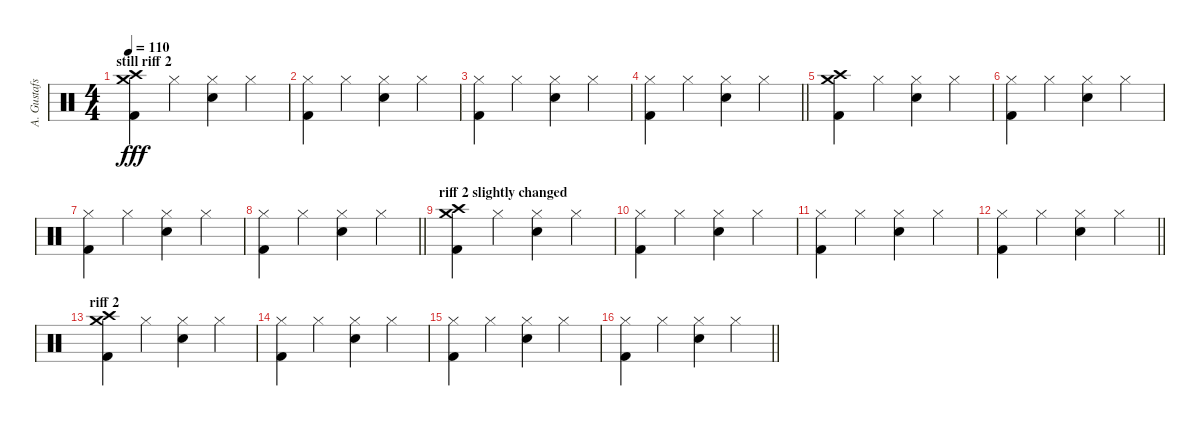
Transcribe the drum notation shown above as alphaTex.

\track ("A. Gustafsson" "A. Gustafs") {instrument percussion}
\staff {score}
\articulation defaults
\ts (4 4)
\section ("" "still riff 2")
\tempo 110
\clef neutral
\ks c
("Crash high (hit)" "Crash medium (hit)" "Kick (hit) 2").4{dy fff} "Hi-Hat (closed)".4 ("Hi-Hat (closed)" "Snare (hit) 2").4 "Hi-Hat (closed)".4 |
("Hi-Hat (closed)" "Kick (hit) 2").4 "Hi-Hat (closed)".4 ("Hi-Hat (closed)" "Snare (hit) 2").4 "Hi-Hat (closed)".4 |
("Hi-Hat (closed)" "Kick (hit) 2").4 "Hi-Hat (closed)".4 ("Hi-Hat (closed)" "Snare (hit) 2").4 "Hi-Hat (closed)".4 |
\barLineRight lightlight
("Hi-Hat (closed)" "Kick (hit) 2").4 "Hi-Hat (closed)".4 ("Hi-Hat (closed)" "Snare (hit) 2").4 "Hi-Hat (closed)".4 |
("Crash high (hit)" "Crash medium (hit)" "Kick (hit) 2").4 "Hi-Hat (closed)".4 ("Hi-Hat (closed)" "Snare (hit) 2").4 "Hi-Hat (closed)".4 |
("Hi-Hat (closed)" "Kick (hit) 2").4 "Hi-Hat (closed)".4 ("Hi-Hat (closed)" "Snare (hit) 2").4 "Hi-Hat (closed)".4 |
("Hi-Hat (closed)" "Kick (hit) 2").4 "Hi-Hat (closed)".4 ("Hi-Hat (closed)" "Snare (hit) 2").4 "Hi-Hat (closed)".4 |
\barLineRight lightlight
("Hi-Hat (closed)" "Kick (hit) 2").4 "Hi-Hat (closed)".4 ("Hi-Hat (closed)" "Snare (hit) 2").4 "Hi-Hat (closed)".4 |
\section ("" "riff 2 slightly changed")
("Crash high (hit)" "Crash medium (hit)" "Kick (hit) 2").4 "Hi-Hat (closed)".4 ("Hi-Hat (closed)" "Snare (hit) 2").4 "Hi-Hat (closed)".4 |
("Hi-Hat (closed)" "Kick (hit) 2").4 "Hi-Hat (closed)".4 ("Hi-Hat (closed)" "Snare (hit) 2").4 "Hi-Hat (closed)".4 |
("Hi-Hat (closed)" "Kick (hit) 2").4 "Hi-Hat (closed)".4 ("Hi-Hat (closed)" "Snare (hit) 2").4 "Hi-Hat (closed)".4 |
\barLineRight lightlight
("Hi-Hat (closed)" "Kick (hit) 2").4 "Hi-Hat (closed)".4 ("Hi-Hat (closed)" "Snare (hit) 2").4 "Hi-Hat (closed)".4 |
\section ("" "riff 2")
("Crash high (hit)" "Crash medium (hit)" "Kick (hit) 2").4 "Hi-Hat (closed)".4 ("Hi-Hat (closed)" "Snare (hit) 2").4 "Hi-Hat (closed)".4 |
("Hi-Hat (closed)" "Kick (hit) 2").4 "Hi-Hat (closed)".4 ("Hi-Hat (closed)" "Snare (hit) 2").4 "Hi-Hat (closed)".4 |
("Hi-Hat (closed)" "Kick (hit) 2").4 "Hi-Hat (closed)".4 ("Hi-Hat (closed)" "Snare (hit) 2").4 "Hi-Hat (closed)".4 |
\barLineRight lightlight
("Hi-Hat (closed)" "Kick (hit) 2").4 "Hi-Hat (closed)".4 ("Hi-Hat (closed)" "Snare (hit) 2").4 "Hi-Hat (closed)".4
